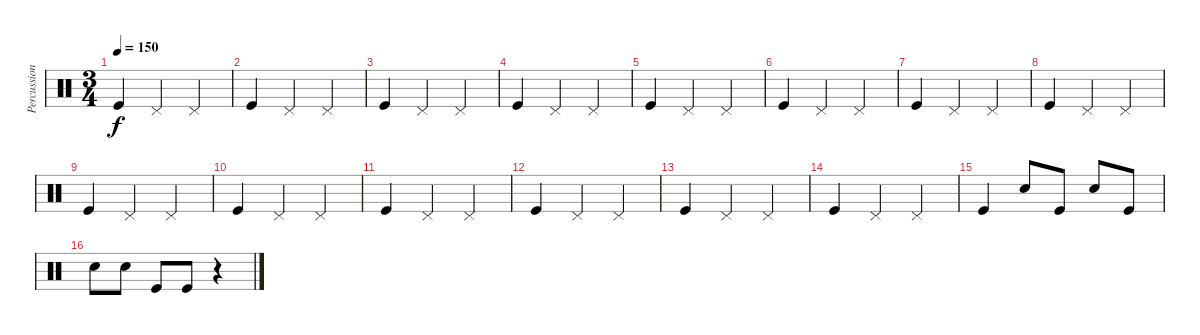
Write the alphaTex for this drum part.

\track ("Percussion" "Percussion") {instrument percussion}
\staff {score}
\articulation defaults
\ts (3 4)
\tempo 150
\clef neutral
\ks c "Kick (hit)".4{dy f} "Pedal Hi-Hat (hit)".4 "Pedal Hi-Hat (hit)".4
|
"Kick (hit)".4 "Pedal Hi-Hat (hit)".4 "Pedal Hi-Hat (hit)".4 |
"Kick (hit)".4 "Pedal Hi-Hat (hit)".4 "Pedal Hi-Hat (hit)".4 |
"Kick (hit)".4 "Pedal Hi-Hat (hit)".4 "Pedal Hi-Hat (hit)".4 |
"Kick (hit)".4 "Pedal Hi-Hat (hit)".4 "Pedal Hi-Hat (hit)".4 |
"Kick (hit)".4 "Pedal Hi-Hat (hit)".4 "Pedal Hi-Hat (hit)".4 |
"Kick (hit)".4 "Pedal Hi-Hat (hit)".4 "Pedal Hi-Hat (hit)".4 |
"Kick (hit)".4 "Pedal Hi-Hat (hit)".4 "Pedal Hi-Hat (hit)".4 |
"Kick (hit)".4 "Pedal Hi-Hat (hit)".4 "Pedal Hi-Hat (hit)".4 |
"Kick (hit)".4 "Pedal Hi-Hat (hit)".4 "Pedal Hi-Hat (hit)".4 |
"Kick (hit)".4 "Pedal Hi-Hat (hit)".4 "Pedal Hi-Hat (hit)".4 |
"Kick (hit)".4 "Pedal Hi-Hat (hit)".4 "Pedal Hi-Hat (hit)".4 |
"Kick (hit)".4 "Pedal Hi-Hat (hit)".4 "Pedal Hi-Hat (hit)".4 |
"Kick (hit)".4 "Pedal Hi-Hat (hit)".4 "Pedal Hi-Hat (hit)".4 |
"Kick (hit)".4 "Snare (hit) 2".8 "Kick (hit)".8 "Snare (hit) 2".8 "Kick (hit)".8 |
"Snare (hit) 2".8 "Snare (hit) 2".8 "Kick (hit)".8 "Kick (hit)".8 r.4
